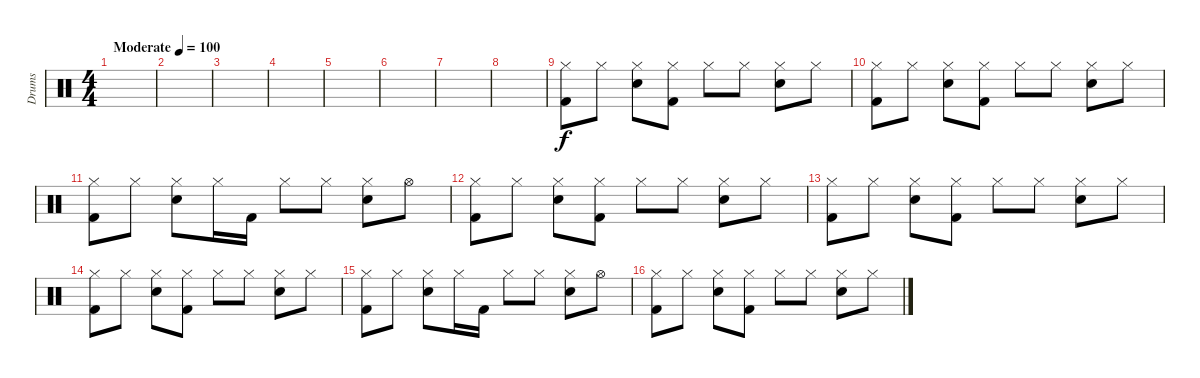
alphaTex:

\track ("Drums" "Drums") {instrument percussion}
\staff {score}
\articulation defaults
\ts (4 4)
\tempo (100 "Moderate")
\clef neutral
\ks c
|
|
|
|
|
|
|
|
("Kick (hit) 2" "Hi-Hat (closed)").8 "Hi-Hat (closed)".8 ("Electric Snare (hit)" "Hi-Hat (closed)").8 ("Kick (hit) 2" "Hi-Hat (closed)").8 "Hi-Hat (closed)".8 "Hi-Hat (closed)".8 ("Electric Snare (hit)" "Hi-Hat (closed)").8 "Hi-Hat (closed)".8 |
("Kick (hit) 2" "Hi-Hat (closed)").8 "Hi-Hat (closed)".8 ("Electric Snare (hit)" "Hi-Hat (closed)").8 ("Kick (hit) 2" "Hi-Hat (closed)").8 "Hi-Hat (closed)".8 "Hi-Hat (closed)".8 ("Electric Snare (hit)" "Hi-Hat (closed)").8 "Hi-Hat (closed)".8 |
("Kick (hit) 2" "Hi-Hat (closed)").8 "Hi-Hat (closed)".8 ("Electric Snare (hit)" "Hi-Hat (closed)").8 "Hi-Hat (closed)".16 "Kick (hit) 2".16 "Hi-Hat (closed)".8 "Hi-Hat (closed)".8 ("Electric Snare (hit)" "Hi-Hat (closed)").8 "Hi-Hat (open)".8 |
("Kick (hit) 2" "Hi-Hat (closed)").8 "Hi-Hat (closed)".8 ("Electric Snare (hit)" "Hi-Hat (closed)").8 ("Kick (hit) 2" "Hi-Hat (closed)").8 "Hi-Hat (closed)".8 "Hi-Hat (closed)".8 ("Electric Snare (hit)" "Hi-Hat (closed)").8 "Hi-Hat (closed)".8 |
("Kick (hit) 2" "Hi-Hat (closed)").8 "Hi-Hat (closed)".8 ("Electric Snare (hit)" "Hi-Hat (closed)").8 ("Kick (hit) 2" "Hi-Hat (closed)").8 "Hi-Hat (closed)".8 "Hi-Hat (closed)".8 ("Electric Snare (hit)" "Hi-Hat (closed)").8 "Hi-Hat (closed)".8 |
("Kick (hit) 2" "Hi-Hat (closed)").8 "Hi-Hat (closed)".8 ("Electric Snare (hit)" "Hi-Hat (closed)").8 ("Kick (hit) 2" "Hi-Hat (closed)").8 "Hi-Hat (closed)".8 "Hi-Hat (closed)".8 ("Electric Snare (hit)" "Hi-Hat (closed)").8 "Hi-Hat (closed)".8 |
("Kick (hit) 2" "Hi-Hat (closed)").8 "Hi-Hat (closed)".8 ("Electric Snare (hit)" "Hi-Hat (closed)").8 "Hi-Hat (closed)".16 "Kick (hit) 2".16 "Hi-Hat (closed)".8 "Hi-Hat (closed)".8 ("Electric Snare (hit)" "Hi-Hat (closed)").8 "Hi-Hat (open)".8 |
("Kick (hit) 2" "Hi-Hat (closed)").8 "Hi-Hat (closed)".8 ("Electric Snare (hit)" "Hi-Hat (closed)").8 ("Kick (hit) 2" "Hi-Hat (closed)").8 "Hi-Hat (closed)".8 "Hi-Hat (closed)".8 ("Electric Snare (hit)" "Hi-Hat (closed)").8 "Hi-Hat (closed)".8
